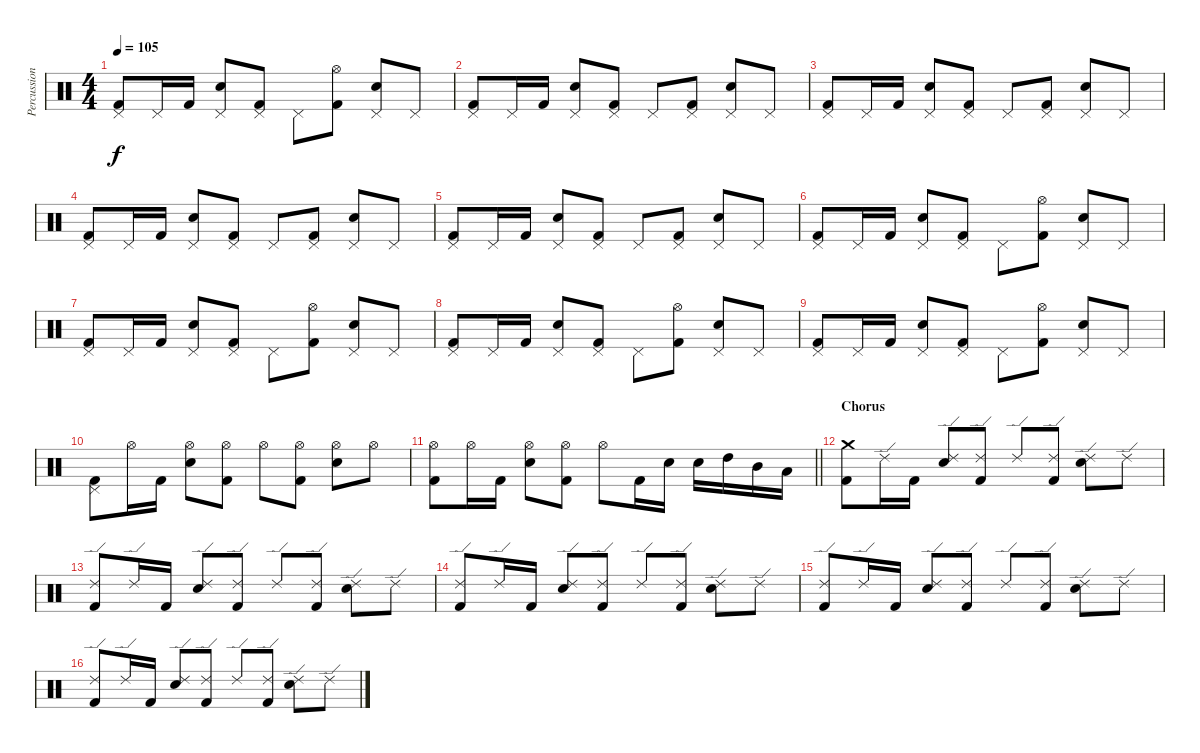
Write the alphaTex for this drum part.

\track ("Percussion" "Percussion") {instrument percussion}
\staff {score}
\articulation defaults
\ts (4 4)
\tempo 105
\clef neutral
\ks c
("Pedal Hi-Hat (hit)" "Kick (hit) 2").8{dy f} "Pedal Hi-Hat (hit)".16 "Kick (hit) 2".16 ("Pedal Hi-Hat (hit)" "Electric Snare (hit)").8 ("Pedal Hi-Hat (hit)" "Kick (hit) 2").8 "Pedal Hi-Hat (hit)".8 ("Hi-Hat (open)" "Kick (hit) 2").8 ("Pedal Hi-Hat (hit)" "Electric Snare (hit)").8 "Pedal Hi-Hat (hit)".8 |
("Pedal Hi-Hat (hit)" "Kick (hit) 2").8 "Pedal Hi-Hat (hit)".16 "Kick (hit) 2".16 ("Pedal Hi-Hat (hit)" "Electric Snare (hit)").8 ("Pedal Hi-Hat (hit)" "Kick (hit) 2").8 "Pedal Hi-Hat (hit)".8 ("Pedal Hi-Hat (hit)" "Kick (hit) 2").8 ("Pedal Hi-Hat (hit)" "Electric Snare (hit)").8 "Pedal Hi-Hat (hit)".8 |
("Pedal Hi-Hat (hit)" "Kick (hit) 2").8 "Pedal Hi-Hat (hit)".16 "Kick (hit) 2".16 ("Pedal Hi-Hat (hit)" "Electric Snare (hit)").8 ("Pedal Hi-Hat (hit)" "Kick (hit) 2").8 "Pedal Hi-Hat (hit)".8 ("Pedal Hi-Hat (hit)" "Kick (hit) 2").8 ("Pedal Hi-Hat (hit)" "Electric Snare (hit)").8 "Pedal Hi-Hat (hit)".8 |
("Pedal Hi-Hat (hit)" "Kick (hit) 2").8 "Pedal Hi-Hat (hit)".16 "Kick (hit) 2".16 ("Pedal Hi-Hat (hit)" "Electric Snare (hit)").8 ("Pedal Hi-Hat (hit)" "Kick (hit) 2").8 "Pedal Hi-Hat (hit)".8 ("Pedal Hi-Hat (hit)" "Kick (hit) 2").8 ("Pedal Hi-Hat (hit)" "Electric Snare (hit)").8 "Pedal Hi-Hat (hit)".8 |
("Pedal Hi-Hat (hit)" "Kick (hit) 2").8 "Pedal Hi-Hat (hit)".16 "Kick (hit) 2".16 ("Pedal Hi-Hat (hit)" "Electric Snare (hit)").8 ("Pedal Hi-Hat (hit)" "Kick (hit) 2").8 "Pedal Hi-Hat (hit)".8 ("Pedal Hi-Hat (hit)" "Kick (hit) 2").8 ("Pedal Hi-Hat (hit)" "Electric Snare (hit)").8 "Pedal Hi-Hat (hit)".8 |
("Pedal Hi-Hat (hit)" "Kick (hit) 2").8 "Pedal Hi-Hat (hit)".16 "Kick (hit) 2".16 ("Pedal Hi-Hat (hit)" "Electric Snare (hit)").8 ("Pedal Hi-Hat (hit)" "Kick (hit) 2").8 "Pedal Hi-Hat (hit)".8 ("Hi-Hat (open)" "Kick (hit) 2").8 ("Pedal Hi-Hat (hit)" "Electric Snare (hit)").8 "Pedal Hi-Hat (hit)".8 |
("Pedal Hi-Hat (hit)" "Kick (hit) 2").8 "Pedal Hi-Hat (hit)".16 "Kick (hit) 2".16 ("Pedal Hi-Hat (hit)" "Electric Snare (hit)").8 ("Pedal Hi-Hat (hit)" "Kick (hit) 2").8 "Pedal Hi-Hat (hit)".8 ("Hi-Hat (open)" "Kick (hit) 2").8 ("Pedal Hi-Hat (hit)" "Electric Snare (hit)").8 "Pedal Hi-Hat (hit)".8 |
("Pedal Hi-Hat (hit)" "Kick (hit) 2").8 "Pedal Hi-Hat (hit)".16 "Kick (hit) 2".16 ("Pedal Hi-Hat (hit)" "Electric Snare (hit)").8 ("Pedal Hi-Hat (hit)" "Kick (hit) 2").8 "Pedal Hi-Hat (hit)".8 ("Hi-Hat (open)" "Kick (hit) 2").8 ("Pedal Hi-Hat (hit)" "Electric Snare (hit)").8 "Pedal Hi-Hat (hit)".8 |
("Pedal Hi-Hat (hit)" "Kick (hit) 2").8 "Pedal Hi-Hat (hit)".16 "Kick (hit) 2".16 ("Pedal Hi-Hat (hit)" "Electric Snare (hit)").8 ("Pedal Hi-Hat (hit)" "Kick (hit) 2").8 "Pedal Hi-Hat (hit)".8 ("Hi-Hat (open)" "Kick (hit) 2").8 ("Pedal Hi-Hat (hit)" "Electric Snare (hit)").8 "Pedal Hi-Hat (hit)".8 |
("Pedal Hi-Hat (hit)" "Kick (hit) 2").8 "Hi-Hat (open)".16 "Kick (hit) 2".16 ("Hi-Hat (open)" "Electric Snare (hit)").8 ("Hi-Hat (open)" "Kick (hit) 2").8 "Hi-Hat (open)".8 ("Hi-Hat (open)" "Kick (hit) 2").8 ("Hi-Hat (open)" "Electric Snare (hit)").8 "Hi-Hat (open)".8 |
\barLineRight lightlight
("Hi-Hat (open)" "Kick (hit) 2").8 "Hi-Hat (open)".16 "Kick (hit) 2".16 ("Hi-Hat (open)" "Electric Snare (hit)").8 ("Hi-Hat (open)" "Kick (hit) 2").8 "Hi-Hat (open)".8 "Kick (hit) 2".16 "Electric Snare (hit)".16 "Electric Snare (hit)".16 "High Tom (hit)".16 "Mid Tom (hit)".16 "Low Tom (hit)".16 |
\section ("" "Chorus")
("Crash medium (hit)" "Kick (hit) 2").8 "Ride (edge) 2".16 "Kick (hit) 2".16 ("Ride (edge) 2" "Electric Snare (hit)").8 ("Ride (edge) 2" "Kick (hit) 2").8 "Ride (edge) 2".8 ("Ride (edge) 2" "Kick (hit) 2").8 ("Ride (edge) 2" "Electric Snare (hit)").8 "Ride (edge) 2".8 |
("Ride (edge) 2" "Kick (hit) 2").8 "Ride (edge) 2".16 "Kick (hit) 2".16 ("Ride (edge) 2" "Electric Snare (hit)").8 ("Ride (edge) 2" "Kick (hit) 2").8 "Ride (edge) 2".8 ("Ride (edge) 2" "Kick (hit) 2").8 ("Ride (edge) 2" "Electric Snare (hit)").8 "Ride (edge) 2".8 |
("Ride (edge) 2" "Kick (hit) 2").8 "Ride (edge) 2".16 "Kick (hit) 2".16 ("Ride (edge) 2" "Electric Snare (hit)").8 ("Ride (edge) 2" "Kick (hit) 2").8 "Ride (edge) 2".8 ("Ride (edge) 2" "Kick (hit) 2").8 ("Ride (edge) 2" "Electric Snare (hit)").8 "Ride (edge) 2".8 |
("Ride (edge) 2" "Kick (hit) 2").8 "Ride (edge) 2".16 "Kick (hit) 2".16 ("Ride (edge) 2" "Electric Snare (hit)").8 ("Ride (edge) 2" "Kick (hit) 2").8 "Ride (edge) 2".8 ("Ride (edge) 2" "Kick (hit) 2").8 ("Ride (edge) 2" "Electric Snare (hit)").8 "Ride (edge) 2".8 |
("Ride (edge) 2" "Kick (hit) 2").8 "Ride (edge) 2".16 "Kick (hit) 2".16 ("Ride (edge) 2" "Electric Snare (hit)").8 ("Ride (edge) 2" "Kick (hit) 2").8 "Ride (edge) 2".8 ("Ride (edge) 2" "Kick (hit) 2").8 ("Ride (edge) 2" "Electric Snare (hit)").8 "Ride (edge) 2".8
